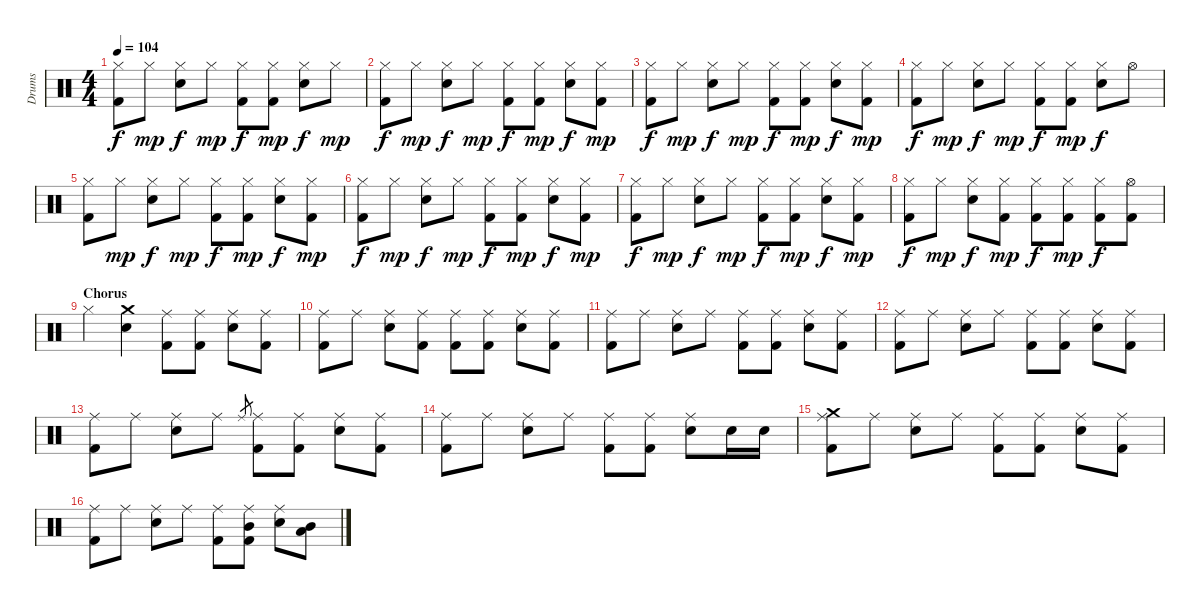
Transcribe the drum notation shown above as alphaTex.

\track ("Drums" "Drums") {instrument percussion}
\staff {score}
\articulation defaults
\ts (4 4)
\tempo 104
\clef neutral
\ks c
("Hi-Hat (closed)" "Kick (hit) 2").8{dy f} "Hi-Hat (closed)".8{dy mp} ("Hi-Hat (closed)" "Electric Snare (hit)").8{dy f} "Hi-Hat (closed)".8{dy mp} ("Hi-Hat (closed)" "Kick (hit) 2").8{dy f} ("Hi-Hat (closed)" "Kick (hit) 2").8{dy mp} ("Hi-Hat (closed)" "Electric Snare (hit)").8{dy f} "Hi-Hat (closed)".8{dy mp} |
("Hi-Hat (closed)" "Kick (hit) 2").8{dy f} "Hi-Hat (closed)".8{dy mp} ("Hi-Hat (closed)" "Electric Snare (hit)").8{dy f} "Hi-Hat (closed)".8{dy mp} ("Hi-Hat (closed)" "Kick (hit) 2").8{dy f} ("Hi-Hat (closed)" "Kick (hit) 2").8{dy mp} ("Hi-Hat (closed)" "Electric Snare (hit)").8{dy f} ("Hi-Hat (closed)" "Kick (hit) 2").8{dy mp} |
("Hi-Hat (closed)" "Kick (hit) 2").8{dy f} "Hi-Hat (closed)".8{dy mp} ("Hi-Hat (closed)" "Electric Snare (hit)").8{dy f} "Hi-Hat (closed)".8{dy mp} ("Hi-Hat (closed)" "Kick (hit) 2").8{dy f} ("Hi-Hat (closed)" "Kick (hit) 2").8{dy mp} ("Hi-Hat (closed)" "Electric Snare (hit)").8{dy f} ("Hi-Hat (closed)" "Kick (hit) 2").8{dy mp} |
("Hi-Hat (closed)" "Kick (hit) 2").8{dy f} "Hi-Hat (closed)".8{dy mp} ("Hi-Hat (closed)" "Electric Snare (hit)").8{dy f} "Hi-Hat (closed)".8{dy mp} ("Hi-Hat (closed)" "Kick (hit) 2").8{dy f} ("Hi-Hat (closed)" "Kick (hit) 2").8{dy mp} ("Hi-Hat (closed)" "Electric Snare (hit)").8{dy f} "Hi-Hat (open)".8 |
("Hi-Hat (closed)" "Kick (hit) 2").8 "Hi-Hat (closed)".8{dy mp} ("Hi-Hat (closed)" "Electric Snare (hit)").8{dy f} "Hi-Hat (closed)".8{dy mp} ("Hi-Hat (closed)" "Kick (hit) 2").8{dy f} ("Hi-Hat (closed)" "Kick (hit) 2").8{dy mp} ("Hi-Hat (closed)" "Electric Snare (hit)").8{dy f} ("Hi-Hat (closed)" "Kick (hit) 2").8{dy mp} |
("Hi-Hat (closed)" "Kick (hit) 2").8{dy f} "Hi-Hat (closed)".8{dy mp} ("Hi-Hat (closed)" "Electric Snare (hit)").8{dy f} "Hi-Hat (closed)".8{dy mp} ("Hi-Hat (closed)" "Kick (hit) 2").8{dy f} ("Hi-Hat (closed)" "Kick (hit) 2").8{dy mp} ("Hi-Hat (closed)" "Electric Snare (hit)").8{dy f} ("Hi-Hat (closed)" "Kick (hit) 2").8{dy mp} |
("Hi-Hat (closed)" "Kick (hit) 2").8{dy f} "Hi-Hat (closed)".8{dy mp} ("Hi-Hat (closed)" "Electric Snare (hit)").8{dy f} "Hi-Hat (closed)".8{dy mp} ("Hi-Hat (closed)" "Kick (hit) 2").8{dy f} ("Hi-Hat (closed)" "Kick (hit) 2").8{dy mp} ("Hi-Hat (closed)" "Electric Snare (hit)").8{dy f} ("Hi-Hat (closed)" "Kick (hit) 2").8{dy mp} |
("Hi-Hat (closed)" "Kick (hit) 2").8{dy f} "Hi-Hat (closed)".8{dy mp} ("Hi-Hat (closed)" "Electric Snare (hit)").8{dy f} ("Hi-Hat (closed)" "Kick (hit) 2").8{dy mp} ("Hi-Hat (closed)" "Kick (hit) 2").8{dy f} ("Hi-Hat (closed)" "Kick (hit) 2").8{dy mp} ("Hi-Hat (closed)" "Kick (hit) 2").8{dy f} ("Hi-Hat (open)" "Kick (hit) 2").8 |
\section ("" "Chorus")
"Hi-Hat (closed)".4 ("Crash medium (hit)" "Electric Snare (hit)").4 ("Ride (middle)" "Kick (hit) 2").8 ("Ride (middle)" "Kick (hit) 2").8 ("Ride (middle)" "Electric Snare (hit)").8 ("Ride (middle)" "Kick (hit) 2").8 |
("Ride (middle)" "Kick (hit) 2").8 "Ride (middle)".8 ("Ride (middle)" "Electric Snare (hit)").8 ("Ride (middle)" "Kick (hit) 2").8 ("Ride (middle)" "Kick (hit) 2").8 ("Ride (middle)" "Kick (hit) 2").8 ("Ride (middle)" "Electric Snare (hit)").8 ("Ride (middle)" "Kick (hit) 2").8 |
("Ride (middle)" "Kick (hit) 2").8 "Ride (middle)".8 ("Ride (middle)" "Electric Snare (hit)").8 "Ride (middle)".8 ("Ride (middle)" "Kick (hit) 2").8 ("Ride (middle)" "Kick (hit) 2").8 ("Ride (middle)" "Electric Snare (hit)").8 ("Ride (middle)" "Kick (hit) 2").8 |
("Ride (middle)" "Kick (hit) 2").8 "Ride (middle)".8 ("Ride (middle)" "Electric Snare (hit)").8 "Ride (middle)".8 ("Ride (middle)" "Kick (hit) 2").8 ("Ride (middle)" "Kick (hit) 2").8 ("Ride (middle)" "Electric Snare (hit)").8 ("Ride (middle)" "Kick (hit) 2").8 |
("Ride (middle)" "Kick (hit) 2").8 "Ride (middle)".8 ("Ride (middle)" "Electric Snare (hit)").8 "Ride (middle)".8 "Ride (middle)".8{gr} ("Ride (middle)" "Kick (hit) 2").8 ("Ride (middle)" "Kick (hit) 2").8 ("Ride (middle)" "Electric Snare (hit)").8 ("Ride (middle)" "Kick (hit) 2").8 |
("Ride (middle)" "Kick (hit) 2").8 "Ride (middle)".8 ("Ride (middle)" "Electric Snare (hit)").8 "Ride (middle)".8 ("Ride (middle)" "Kick (hit) 2").8 ("Ride (middle)" "Kick (hit) 2").8 ("Ride (middle)" "Electric Snare (hit)").8 "Electric Snare (hit)".16 "Electric Snare (hit)".16 |
("Crash medium (hit)" "Ride (middle)" "Kick (hit) 2").8 "Ride (middle)".8 ("Ride (middle)" "Electric Snare (hit)").8 "Ride (middle)".8 ("Ride (middle)" "Kick (hit) 2").8 ("Ride (middle)" "Kick (hit) 2").8 ("Ride (middle)" "Electric Snare (hit)").8 ("Ride (middle)" "Kick (hit) 2").8 |
("Ride (middle)" "Kick (hit) 2").8 "Ride (middle)".8 ("Ride (middle)" "Electric Snare (hit)").8 "Ride (middle)".8 ("Ride (middle)" "Kick (hit) 2").8 ("Ride (middle)" "Mid Tom (hit)" "Kick (hit) 2").8 ("Ride (middle)" "Electric Snare (hit)").8 ("Mid Tom (hit)" "Low Tom (hit)").8
